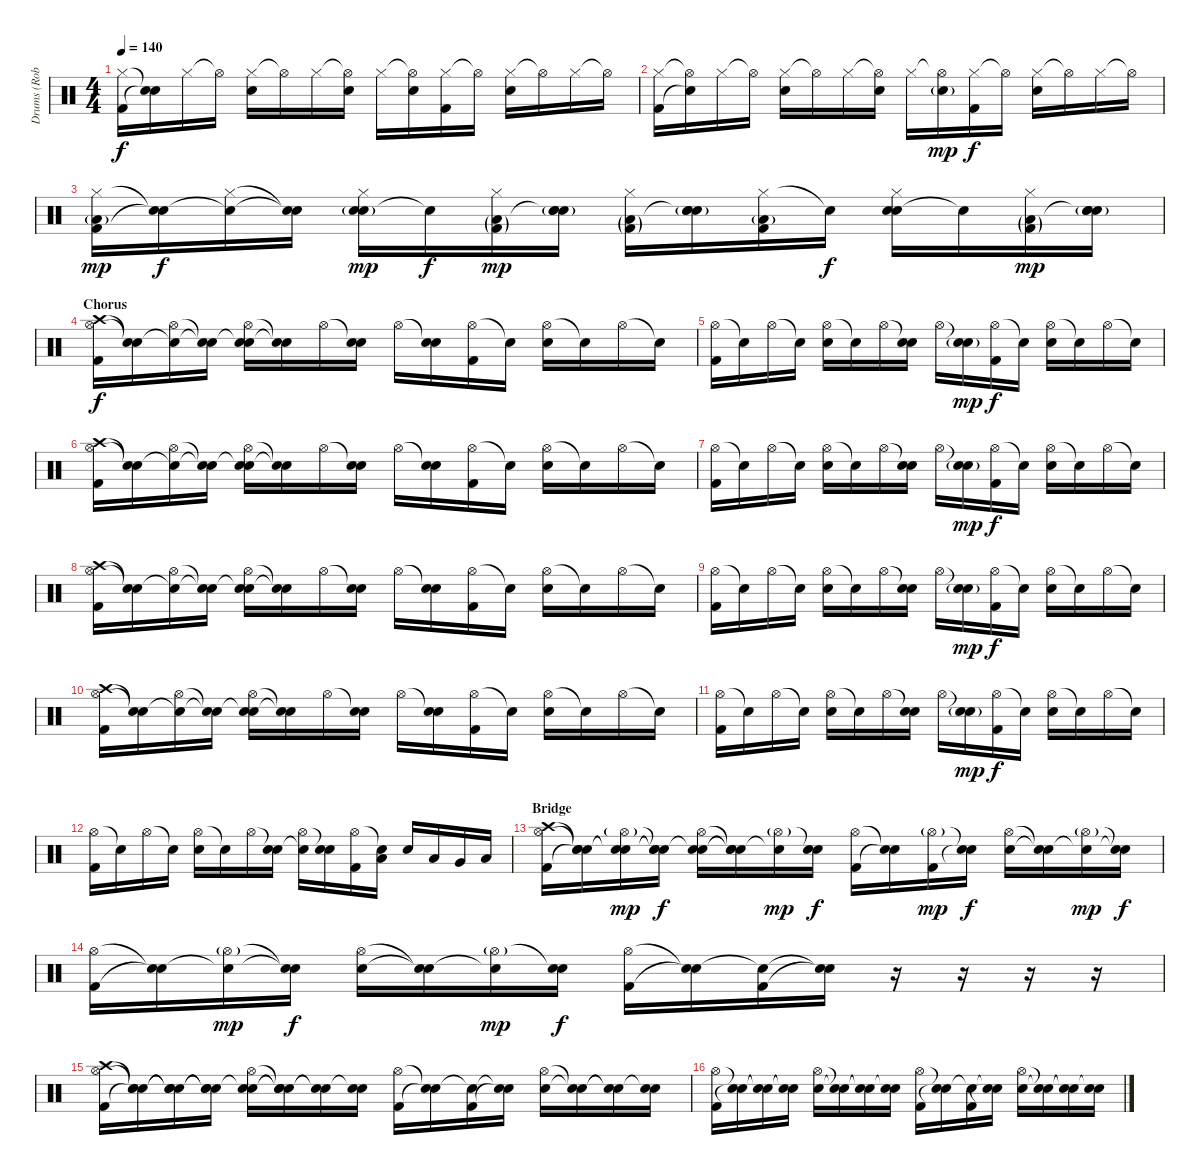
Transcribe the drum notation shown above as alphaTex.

\track ("Drums (Rob Bourdon)" "Drums (Rob") {instrument percussion}
\staff {score}
\articulation defaults
\ts (4 4)
\tempo 140
\clef neutral
\ks c
("Hi-Hat (closed)" "Kick (hit) 2").16{dy f volume 12} ("Snare (hit)"{t} "Snare (hit)"{t}).16 "Hi-Hat (closed)".16 "Hi-Hat (open)"{t}.16 ("Hi-Hat (closed)" "Electric Snare (hit)").16 "Hi-Hat (open)"{t}.16 "Hi-Hat (closed)".16 ("Hi-Hat (open)"{t} "Electric Snare (hit)").16 "Hi-Hat (closed)".16 ("Hi-Hat (open)"{t} "Electric Snare (hit)").16 ("Hi-Hat (closed)" "Kick (hit) 2").16 "Hi-Hat (open)"{t}.16 ("Hi-Hat (closed)" "Electric Snare (hit)").16 "Hi-Hat (open)"{t}.16 "Hi-Hat (closed)".16 "Hi-Hat (open)"{t}.16 |
("Hi-Hat (closed)" "Kick (hit) 2").16{volume 12} ("Hi-Hat (open)"{t} "Snare (hit)"{t}).16 "Hi-Hat (closed)".16 "Hi-Hat (open)"{t}.16 ("Hi-Hat (closed)" "Electric Snare (hit)").16 "Hi-Hat (open)"{t}.16 "Hi-Hat (closed)".16 ("Hi-Hat (open)"{t} "Electric Snare (hit)").16 "Hi-Hat (closed)".16 ("Hi-Hat (open)"{t} "Electric Snare (hit)"{g}).16{dy mp} ("Hi-Hat (closed)" "Kick (hit) 2").16{dy f} "Hi-Hat (open)"{t}.16 ("Hi-Hat (closed)" "Electric Snare (hit)").16 "Hi-Hat (open)"{t}.16 "Hi-Hat (closed)".16 "Hi-Hat (open)"{t}.16 |
("Hi-Hat (closed)" "Kick (hit) 2" "Low Floor Tom (hit)"{g}).16{dy mp volume 5} ("Snare (hit)"{t} "Snare (hit)"{t}).16{dy f} ("Hi-Hat (closed)" "Snare (hit)"{t}).16 ("Snare (hit)"{t} "Snare (hit)"{t}).16 ("Electric Snare (hit)" "Hi-Hat (closed)" "Snare (hit) 2"{g}).16{dy mp} "Snare (hit)"{t}.16{dy f} ("Hi-Hat (closed)" "Kick (hit) 2"{g} "Low Floor Tom (hit)"{g}).16{dy mp} ("Electric Snare (hit)"{g} "Snare (hit) 2" "Snare (hit)"{t}).16 ("Hi-Hat (closed)" "Kick (hit) 2"{g} "Low Floor Tom (hit)"{g}).16 ("Electric Snare (hit)"{g} "Snare (hit) 2" "Snare (hit)"{t}).16 ("Hi-Hat (closed)" "Kick (hit) 2" "Low Floor Tom (hit)"{g}).16 "Snare (hit)"{t}.16{dy f} ("Snare (hit) 2" "Electric Snare (hit)" "Hi-Hat (closed)").16 "Snare (hit)"{t}.16 ("Hi-Hat (closed)" "Kick (hit) 2"{g} "Low Floor Tom (hit)"{g}).16{dy mp} ("Electric Snare (hit)"{g} "Snare (hit) 2" "Snare (hit)"{t}).16 |
\section ("" "Chorus")
("Crash high (hit)" "Hi-Hat (open)" "Kick (hit) 2").16{dy f volume 14} ("Snare (hit)"{t} "Snare (hit)"{t}).16 ("Snare (hit)"{t} "Hi-Hat (open)").16 ("Snare (hit)"{t} "Snare (hit)"{t}).16 ("Snare (hit)"{t} "Hi-Hat (open)" "Electric Snare (hit)").16 ("Snare (hit)"{t} "Snare (hit)"{t}).16 "Hi-Hat (open)".16 ("Snare (hit)"{t} "Electric Snare (hit)").16 "Hi-Hat (open)".16 ("Snare (hit)"{t} "Electric Snare (hit)").16 ("Hi-Hat (open)" "Kick (hit) 2").16 "Snare (hit)"{t}.16 ("Hi-Hat (open)" "Electric Snare (hit)").16 "Snare (hit)"{t}.16 "Hi-Hat (open)".16 "Snare (hit)"{t}.16 |
("Hi-Hat (open)" "Kick (hit) 2").16 "Snare (hit)"{t}.16 "Hi-Hat (open)".16 "Snare (hit)"{t}.16 ("Hi-Hat (open)" "Electric Snare (hit)").16 "Snare (hit)"{t}.16 "Hi-Hat (open)".16 ("Snare (hit)"{t} "Electric Snare (hit)").16 "Hi-Hat (open)".16 ("Snare (hit)"{t} "Electric Snare (hit)"{g}).16{dy mp} ("Hi-Hat (open)" "Kick (hit) 2").16{dy f} "Snare (hit)"{t}.16 ("Hi-Hat (open)" "Electric Snare (hit)").16 "Snare (hit)"{t}.16 "Hi-Hat (open)".16 "Snare (hit)"{t}.16 |
("Crash high (hit)" "Hi-Hat (open)" "Kick (hit) 2").16{volume 14} ("Snare (hit)"{t} "Snare (hit)"{t}).16 ("Snare (hit)"{t} "Hi-Hat (open)").16 ("Snare (hit)"{t} "Snare (hit)"{t}).16 ("Snare (hit)"{t} "Hi-Hat (open)" "Electric Snare (hit)").16 ("Snare (hit)"{t} "Snare (hit)"{t}).16 "Hi-Hat (open)".16 ("Snare (hit)"{t} "Electric Snare (hit)").16 "Hi-Hat (open)".16 ("Snare (hit)"{t} "Electric Snare (hit)").16 ("Hi-Hat (open)" "Kick (hit) 2").16 "Snare (hit)"{t}.16 ("Hi-Hat (open)" "Electric Snare (hit)").16 "Snare (hit)"{t}.16 "Hi-Hat (open)".16 "Snare (hit)"{t}.16 |
("Hi-Hat (open)" "Kick (hit) 2").16 "Snare (hit)"{t}.16 "Hi-Hat (open)".16 "Snare (hit)"{t}.16 ("Hi-Hat (open)" "Electric Snare (hit)").16 "Snare (hit)"{t}.16 "Hi-Hat (open)".16 ("Snare (hit)"{t} "Electric Snare (hit)").16 "Hi-Hat (open)".16 ("Snare (hit)"{t} "Electric Snare (hit)"{g}).16{dy mp} ("Hi-Hat (open)" "Kick (hit) 2").16{dy f} "Snare (hit)"{t}.16 ("Hi-Hat (open)" "Electric Snare (hit)").16 "Snare (hit)"{t}.16 "Hi-Hat (open)".16 "Snare (hit)"{t}.16 |
("Crash high (hit)" "Hi-Hat (open)" "Kick (hit) 2").16{volume 14} ("Snare (hit)"{t} "Snare (hit)"{t}).16 ("Snare (hit)"{t} "Hi-Hat (open)").16 ("Snare (hit)"{t} "Snare (hit)"{t}).16 ("Snare (hit)"{t} "Hi-Hat (open)" "Electric Snare (hit)").16 ("Snare (hit)"{t} "Snare (hit)"{t}).16 "Hi-Hat (open)".16 ("Snare (hit)"{t} "Electric Snare (hit)").16 "Hi-Hat (open)".16 ("Snare (hit)"{t} "Electric Snare (hit)").16 ("Hi-Hat (open)" "Kick (hit) 2").16 "Snare (hit)"{t}.16 ("Hi-Hat (open)" "Electric Snare (hit)").16 "Snare (hit)"{t}.16 "Hi-Hat (open)".16 "Snare (hit)"{t}.16 |
("Hi-Hat (open)" "Kick (hit) 2").16 "Snare (hit)"{t}.16 "Hi-Hat (open)".16 "Snare (hit)"{t}.16 ("Hi-Hat (open)" "Electric Snare (hit)").16 "Snare (hit)"{t}.16 "Hi-Hat (open)".16 ("Snare (hit)"{t} "Electric Snare (hit)").16 "Hi-Hat (open)".16 ("Snare (hit)"{t} "Electric Snare (hit)"{g}).16{dy mp} ("Hi-Hat (open)" "Kick (hit) 2").16{dy f} "Snare (hit)"{t}.16 ("Hi-Hat (open)" "Electric Snare (hit)").16 "Snare (hit)"{t}.16 "Hi-Hat (open)".16 "Snare (hit)"{t}.16 |
("Crash high (hit)" "Hi-Hat (open)" "Kick (hit) 2").16{volume 14} ("Snare (hit)"{t} "Snare (hit)"{t}).16 ("Snare (hit)"{t} "Hi-Hat (open)").16 ("Snare (hit)"{t} "Snare (hit)"{t}).16 ("Snare (hit)"{t} "Hi-Hat (open)" "Electric Snare (hit)").16 ("Snare (hit)"{t} "Snare (hit)"{t}).16 "Hi-Hat (open)".16 ("Snare (hit)"{t} "Electric Snare (hit)").16 "Hi-Hat (open)".16 ("Snare (hit)"{t} "Electric Snare (hit)").16 ("Hi-Hat (open)" "Kick (hit) 2").16 "Snare (hit)"{t}.16 ("Hi-Hat (open)" "Electric Snare (hit)").16 "Snare (hit)"{t}.16 "Hi-Hat (open)".16 "Snare (hit)"{t}.16 |
("Hi-Hat (open)" "Kick (hit) 2").16 "Snare (hit)"{t}.16 "Hi-Hat (open)".16 "Snare (hit)"{t}.16 ("Hi-Hat (open)" "Electric Snare (hit)").16 "Snare (hit)"{t}.16 "Hi-Hat (open)".16 ("Snare (hit)"{t} "Electric Snare (hit)").16 "Hi-Hat (open)".16 ("Snare (hit)"{t} "Electric Snare (hit)"{g}).16{dy mp} ("Hi-Hat (open)" "Kick (hit) 2").16{dy f} "Snare (hit)"{t}.16 ("Hi-Hat (open)" "Electric Snare (hit)").16 "Snare (hit)"{t}.16 "Hi-Hat (open)".16 "Snare (hit)"{t}.16 |
("Hi-Hat (open)" "Kick (hit) 2").16 "Snare (hit)"{t}.16 "Hi-Hat (open)".16 "Snare (hit)"{t}.16 ("Hi-Hat (open)" "Electric Snare (hit)").16 "Snare (hit)"{t}.16 "Hi-Hat (open)".16 ("Snare (hit)"{t} "Electric Snare (hit)").16 ("Hi-Hat (open)" "Electric Snare (hit)"{t}).16 ("Snare (hit)"{t} "Electric Snare (hit)").16 ("Hi-Hat (open)" "Kick (hit) 2").16 ("Snare (hit)"{t} "Low Tom (hit)").16 "Electric Snare (hit)".16 "Low Tom (hit)".16 "Very Low Tom (hit)".16 "Low Floor Tom (hit)".16 |
\section ("" "Bridge")
("Crash high (hit)" "Hi-Hat (open)" "Kick (hit) 2").16 ("Snare (hit)"{t} "Snare (hit)"{t} "Snare (hit)"{t}).16 ("Snare (hit)"{t} "Hi-Hat (open)"{g} "Snare (hit)"{t}).16{dy mp} ("Snare (hit)"{t} "Snare (hit)"{t} "Snare (hit)"{t}).16{dy f} ("Snare (hit)"{t} "Hi-Hat (open)" "Electric Snare (hit)").16 ("Snare (hit)"{t} "Snare (hit)"{t} "Snare (hit)"{t}).16 ("Hi-Hat (open)"{g} "Snare (hit)"{t}).16{dy mp} ("Snare (hit)"{t} "Electric Snare (hit)").16{dy f} ("Hi-Hat (open)" "Kick (hit) 2").16 ("Snare (hit)"{t} "Snare (hit)"{t}).16 ("Hi-Hat (open)"{g} "Kick (hit) 2").16{dy mp} ("Snare (hit)"{t} "Snare (hit)"{t}).16{dy f} ("Hi-Hat (open)" "Electric Snare (hit)").16 ("Snare (hit)"{t} "Snare (hit)"{t}).16 ("Hi-Hat (open)"{g} "Snare (hit)"{t}).16{dy mp} ("Snare (hit)"{t} "Snare (hit)"{t}).16{dy f} |
("Hi-Hat (open)" "Kick (hit) 2").16 ("Snare (hit)"{t} "Snare (hit)"{t}).16 ("Hi-Hat (open)"{g} "Snare (hit)"{t}).16{dy mp} ("Snare (hit)"{t} "Snare (hit)"{t}).16{dy f} ("Hi-Hat (open)" "Electric Snare (hit)").16 ("Snare (hit)"{t} "Snare (hit)"{t}).16 ("Hi-Hat (open)"{g} "Snare (hit)"{t}).16{dy mp} ("Snare (hit)"{t} "Electric Snare (hit)").16{dy f} ("Hi-Hat (open)" "Kick (hit) 2").16 ("Snare (hit)"{t} "Snare (hit)"{t}).16 ("Snare (hit)"{t} "Kick (hit) 2").16 ("Snare (hit)"{t} "Snare (hit)"{t}).16 r.16 r.16 r.16 r.16 |
("Crash high (hit)" "Hi-Hat (open)" "Kick (hit) 2").16 ("Snare (hit)"{t} "Snare (hit)"{t} "Snare (hit)"{t}).16 ("Snare (hit)"{t} "Snare (hit)"{t} "Snare (hit)"{t}).16 ("Snare (hit)"{t} "Snare (hit)"{t} "Snare (hit)"{t}).16 ("Snare (hit)"{t} "Hi-Hat (open)" "Electric Snare (hit)").16 ("Snare (hit)"{t} "Snare (hit)"{t} "Snare (hit)"{t}).16 ("Snare (hit)"{t} "Snare (hit)"{t}).16 ("Snare (hit)"{t} "Electric Snare (hit)").16 ("Hi-Hat (open)" "Kick (hit) 2").16 ("Snare (hit)"{t} "Snare (hit)"{t}).16 ("Snare (hit)"{t} "Kick (hit) 2").16 ("Snare (hit)"{t} "Snare (hit)"{t}).16 ("Hi-Hat (open)" "Electric Snare (hit)").16 ("Snare (hit)"{t} "Snare (hit)"{t}).16 ("Snare (hit)"{t} "Snare (hit)"{t}).16 ("Snare (hit)"{t} "Electric Snare (hit)").16 |
("Hi-Hat (open)" "Kick (hit) 2").16 ("Snare (hit)"{t} "Snare (hit)"{t}).16 ("Snare (hit)"{t} "Snare (hit)"{t}).16 ("Snare (hit)"{t} "Snare (hit)"{t}).16 ("Hi-Hat (open)" "Electric Snare (hit)").16 ("Snare (hit)"{t} "Snare (hit)"{t}).16 ("Snare (hit)"{t} "Snare (hit)"{t}).16 ("Snare (hit)"{t} "Electric Snare (hit)").16 ("Hi-Hat (open)" "Kick (hit) 2").16 ("Snare (hit)"{t} "Snare (hit)"{t}).16 ("Snare (hit)"{t} "Kick (hit) 2").16 ("Snare (hit)"{t} "Snare (hit)"{t}).16 ("Hi-Hat (open)" "Electric Snare (hit)").16 ("Snare (hit)"{t} "Snare (hit)"{t}).16 ("Snare (hit)"{t} "Snare (hit)"{t}).16 ("Snare (hit)"{t} "Electric Snare (hit)").16
